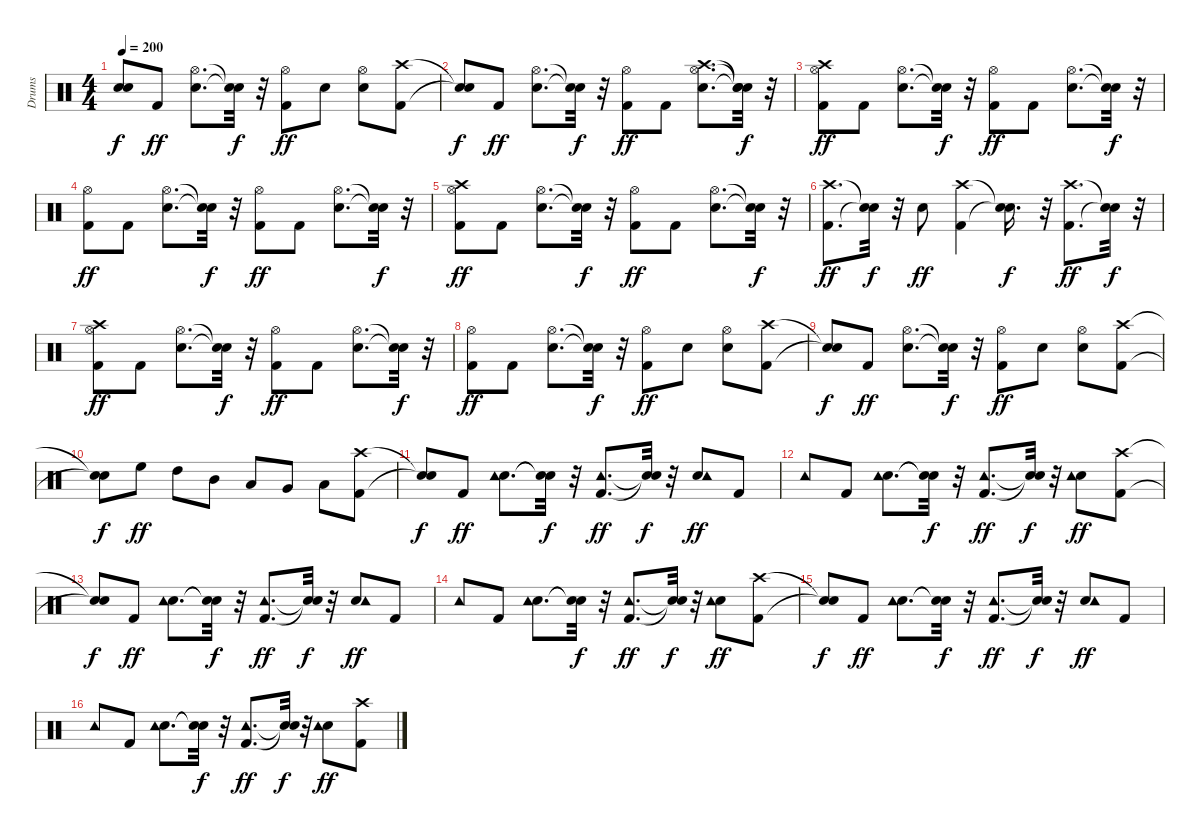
\track ("Drums" "Drums") {instrument percussion}
\staff {score}
\articulation defaults
\ts (4 4)
\tempo 200
\clef neutral
\ks c
("Snare (hit)"{t} "Snare (hit)"{t}).8{dy f} "Kick (hit) 2".8{dy ff} ("Snare (hit) 2" "Hi-Hat (open)").8{d} ("Snare (hit)"{t} "Snare (hit)"{t}).32{dy f} r.32 ("Kick (hit) 2" "Hi-Hat (open)").8{dy ff} "Snare (hit) 2".8 ("Snare (hit) 2" "Hi-Hat (open)").8 ("Kick (hit) 2" "Crash high (hit)").8 |
("Snare (hit)"{t} "Snare (hit)"{t}).8{dy f} "Kick (hit) 2".8{dy ff} ("Snare (hit) 2" "Hi-Hat (open)").8{d} ("Snare (hit)"{t} "Snare (hit)"{t}).32{dy f} r.32 ("Kick (hit) 2" "Hi-Hat (open)").8{dy ff} "Kick (hit) 2".8 ("Snare (hit) 2" "Hi-Hat (open)" "Crash high (hit)").8{d} ("Snare (hit)"{t} "Snare (hit)"{t} "Snare (hit)"{t}).32{dy f} r.32 |
("Kick (hit) 2" "Hi-Hat (open)" "Crash high (hit)").8{dy ff} "Kick (hit) 2".8 ("Snare (hit) 2" "Hi-Hat (open)").8{d} ("Snare (hit)"{t} "Snare (hit)"{t}).32{dy f} r.32 ("Kick (hit) 2" "Hi-Hat (open)").8{dy ff} "Kick (hit) 2".8 ("Snare (hit) 2" "Hi-Hat (open)").8{d} ("Snare (hit)"{t} "Snare (hit)"{t}).32{dy f} r.32 |
("Kick (hit) 2" "Hi-Hat (open)").8{dy ff} "Kick (hit) 2".8 ("Snare (hit) 2" "Hi-Hat (open)").8{d} ("Snare (hit)"{t} "Snare (hit)"{t}).32{dy f} r.32 ("Kick (hit) 2" "Hi-Hat (open)").8{dy ff} "Kick (hit) 2".8 ("Snare (hit) 2" "Hi-Hat (open)").8{d} ("Snare (hit)"{t} "Snare (hit)"{t}).32{dy f} r.32 |
("Kick (hit) 2" "Hi-Hat (open)" "Crash high (hit)").8{dy ff} "Kick (hit) 2".8 ("Snare (hit) 2" "Hi-Hat (open)").8{d} ("Snare (hit)"{t} "Snare (hit)"{t}).32{dy f} r.32 ("Kick (hit) 2" "Hi-Hat (open)").8{dy ff} "Kick (hit) 2".8 ("Snare (hit) 2" "Hi-Hat (open)").8{d} ("Snare (hit)"{t} "Snare (hit)"{t}).32{dy f} r.32 |
("Kick (hit) 2" "Crash high (hit)").8{d dy ff} ("Snare (hit)"{t} "Snare (hit)"{t}).32{dy f} r.32 "Snare (hit) 2".8{dy ff} ("Kick (hit) 2" "Crash high (hit)").4 ("Snare (hit)"{t} "Snare (hit)"{t}).16{d dy f} r.32 ("Kick (hit) 2" "Crash high (hit)").8{d dy ff} ("Snare (hit)"{t} "Snare (hit)"{t}).32{dy f} r.32 |
("Kick (hit) 2" "Hi-Hat (open)" "Crash high (hit)").8{dy ff} "Kick (hit) 2".8 ("Snare (hit) 2" "Hi-Hat (open)").8{d} ("Snare (hit)"{t} "Snare (hit)"{t}).32{dy f} r.32 ("Kick (hit) 2" "Hi-Hat (open)").8{dy ff} "Kick (hit) 2".8 ("Snare (hit) 2" "Hi-Hat (open)").8{d} ("Snare (hit)"{t} "Snare (hit)"{t}).32{dy f} r.32 |
("Kick (hit) 2" "Hi-Hat (open)").8{dy ff} "Kick (hit) 2".8 ("Snare (hit) 2" "Hi-Hat (open)").8{d} ("Snare (hit)"{t} "Snare (hit)"{t}).32{dy f} r.32 ("Kick (hit) 2" "Hi-Hat (open)").8{dy ff} "Snare (hit) 2".8 ("Snare (hit) 2" "Hi-Hat (open)").8 ("Kick (hit) 2" "Crash high (hit)").8 |
("Snare (hit)"{t} "Snare (hit)"{t}).8{dy f} "Kick (hit) 2".8{dy ff} ("Snare (hit) 2" "Hi-Hat (open)").8{d} ("Snare (hit)"{t} "Snare (hit)"{t}).32{dy f} r.32 ("Kick (hit) 2" "Hi-Hat (open)").8{dy ff} "Snare (hit) 2".8 ("Snare (hit) 2" "Hi-Hat (open)").8 ("Kick (hit) 2" "Crash high (hit)").8 |
("Snare (hit)"{t} "Snare (hit)"{t}).8{dy f} "High Floor Tom (hit)".8{dy ff} "High Tom (hit)".8 "Mid Tom (hit)".8 "Low Tom (hit)".8 "Very Low Tom (hit)".8 "Low Floor Tom (hit)".8 ("Kick (hit) 2" "Crash high (hit)").8 |
("Snare (hit)"{t} "Snare (hit)"{t}).8{dy f} "Kick (hit) 2".8{dy ff} ("Snare (hit) 2" "Tambourine (hit)").8{d} ("Snare (hit)"{t} "Snare (hit)"{t}).32{dy f} r.32 ("Kick (hit) 2" "Tambourine (hit)").8{d dy ff} ("Snare (hit)"{t} "Snare (hit)"{t}).32{dy f} r.32 ("Snare (hit) 2" "Tambourine (hit)").8{dy ff} "Kick (hit) 2".8 |
"Tambourine (hit)".8 "Kick (hit) 2".8 ("Snare (hit) 2" "Tambourine (hit)").8{d} ("Snare (hit)"{t} "Snare (hit)"{t}).32{dy f} r.32 ("Kick (hit) 2" "Tambourine (hit)").8{d dy ff} ("Snare (hit)"{t} "Snare (hit)"{t}).32{dy f} r.32 ("Snare (hit) 2" "Tambourine (hit)").8{dy ff} ("Kick (hit) 2" "Crash high (hit)").8 |
("Snare (hit)"{t} "Snare (hit)"{t}).8{dy f} "Kick (hit) 2".8{dy ff} ("Snare (hit) 2" "Tambourine (hit)").8{d} ("Snare (hit)"{t} "Snare (hit)"{t}).32{dy f} r.32 ("Kick (hit) 2" "Tambourine (hit)").8{d dy ff} ("Snare (hit)"{t} "Snare (hit)"{t}).32{dy f} r.32 ("Snare (hit) 2" "Tambourine (hit)").8{dy ff} "Kick (hit) 2".8 |
"Tambourine (hit)".8 "Kick (hit) 2".8 ("Snare (hit) 2" "Tambourine (hit)").8{d} ("Snare (hit)"{t} "Snare (hit)"{t}).32{dy f} r.32 ("Kick (hit) 2" "Tambourine (hit)").8{d dy ff} ("Snare (hit)"{t} "Snare (hit)"{t}).32{dy f} r.32 ("Snare (hit) 2" "Tambourine (hit)").8{dy ff} ("Kick (hit) 2" "Crash high (hit)").8 |
("Snare (hit)"{t} "Snare (hit)"{t}).8{dy f} "Kick (hit) 2".8{dy ff} ("Snare (hit) 2" "Tambourine (hit)").8{d} ("Snare (hit)"{t} "Snare (hit)"{t}).32{dy f} r.32 ("Kick (hit) 2" "Tambourine (hit)").8{d dy ff} ("Snare (hit)"{t} "Snare (hit)"{t}).32{dy f} r.32 ("Snare (hit) 2" "Tambourine (hit)").8{dy ff} "Kick (hit) 2".8 |
"Tambourine (hit)".8 "Kick (hit) 2".8 ("Snare (hit) 2" "Tambourine (hit)").8{d} ("Snare (hit)"{t} "Snare (hit)"{t}).32{dy f} r.32 ("Kick (hit) 2" "Tambourine (hit)").8{d dy ff} ("Snare (hit)"{t} "Snare (hit)"{t}).32{dy f} r.32 ("Snare (hit) 2" "Tambourine (hit)").8{dy ff} ("Kick (hit) 2" "Crash high (hit)").8
